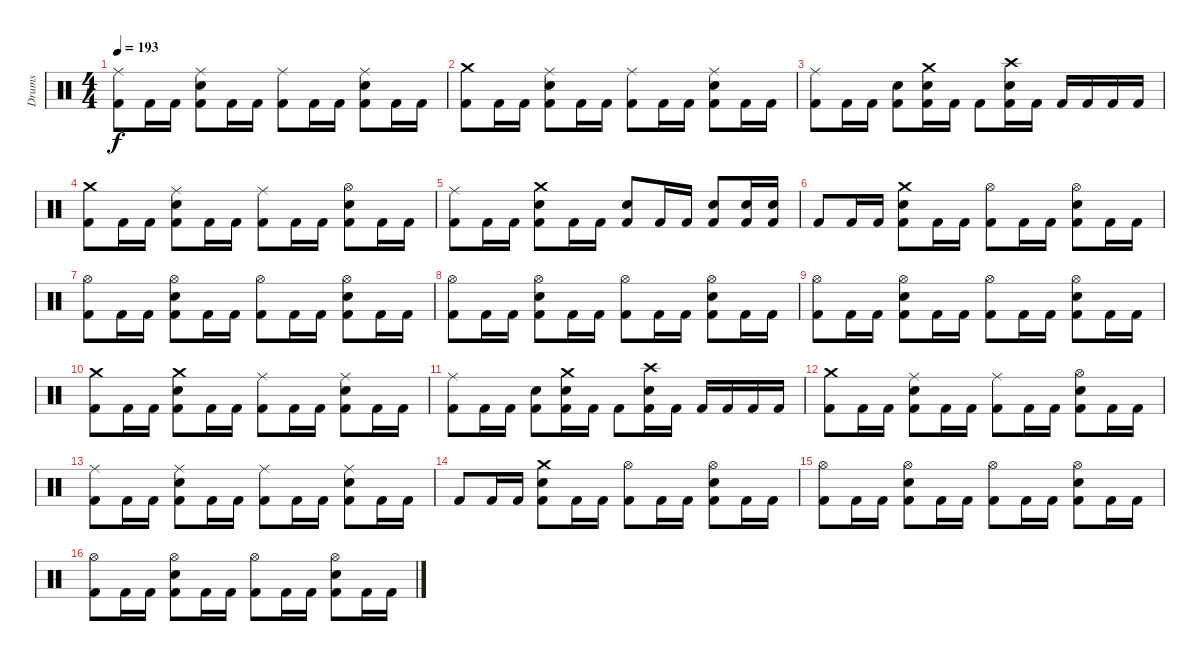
\track ("Drums" "Drums") {instrument percussion}
\staff {score}
\articulation defaults
\ts (4 4)
\tempo 193
\clef neutral
\ks c
("Ride (middle)" "Kick (hit) 2").8{dy f} "Kick (hit) 2".16 "Kick (hit) 2".16 ("Ride (middle)" "Snare (hit) 2" "Kick (hit) 2").8 "Kick (hit) 2".16 "Kick (hit) 2".16 ("Ride (middle)" "Kick (hit) 2").8 "Kick (hit) 2".16 "Kick (hit) 2".16 ("Ride (middle)" "Snare (hit) 2" "Kick (hit) 2").8 "Kick (hit) 2".16 "Kick (hit) 2".16 |
("Crash medium (hit)" "Kick (hit) 2").8 "Kick (hit) 2".16 "Kick (hit) 2".16 ("Ride (middle)" "Snare (hit) 2" "Kick (hit) 2").8 "Kick (hit) 2".16 "Kick (hit) 2".16 ("Ride (middle)" "Kick (hit) 2").8 "Kick (hit) 2".16 "Kick (hit) 2".16 ("Ride (middle)" "Snare (hit) 2" "Kick (hit) 2").8 "Kick (hit) 2".16 "Kick (hit) 2".16 |
("Ride (middle)" "Kick (hit) 2").8 "Kick (hit) 2".16 "Kick (hit) 2".16 ("Snare (hit) 2" "Kick (hit) 2").8 ("Crash medium (hit)" "Snare (hit) 2" "Kick (hit) 2").16 "Kick (hit) 2".16 "Kick (hit) 2".8 ("Crash high (hit)" "Snare (hit) 2" "Kick (hit) 2").16 "Kick (hit) 2".16 "Kick (hit) 2".16 "Kick (hit) 2".16 "Kick (hit) 2".16 "Kick (hit) 2".16 |
("Crash medium (hit)" "Kick (hit) 2").8 "Kick (hit) 2".16 "Kick (hit) 2".16 ("Ride (middle)" "Snare (hit) 2" "Kick (hit) 2").8 "Kick (hit) 2".16 "Kick (hit) 2".16 ("Ride (middle)" "Kick (hit) 2").8 "Kick (hit) 2".16 "Kick (hit) 2".16 ("Hi-Hat (open)" "Snare (hit) 2" "Kick (hit) 2").8 "Kick (hit) 2".16 "Kick (hit) 2".16 |
("Ride (middle)" "Kick (hit) 2").8 "Kick (hit) 2".16 "Kick (hit) 2".16 ("Crash medium (hit)" "Snare (hit) 2" "Kick (hit) 2").8 "Kick (hit) 2".16 "Kick (hit) 2".16 ("Snare (hit) 2" "Kick (hit) 2").8 "Kick (hit) 2".16 "Kick (hit) 2".16 ("Snare (hit) 2" "Kick (hit) 2").8 ("Snare (hit) 2" "Kick (hit) 2").16 ("Snare (hit) 2" "Kick (hit) 2").16 |
"Kick (hit) 2".8 "Kick (hit) 2".16 "Kick (hit) 2".16 ("Crash medium (hit)" "Snare (hit) 2" "Kick (hit) 2").8 "Kick (hit) 2".16 "Kick (hit) 2".16 ("Hi-Hat (open)" "Kick (hit) 2").8 "Kick (hit) 2".16 "Kick (hit) 2".16 ("Hi-Hat (open)" "Snare (hit) 2" "Kick (hit) 2").8 "Kick (hit) 2".16 "Kick (hit) 2".16 |
("Hi-Hat (open)" "Kick (hit) 2").8 "Kick (hit) 2".16 "Kick (hit) 2".16 ("Hi-Hat (open)" "Snare (hit) 2" "Kick (hit) 2").8 "Kick (hit) 2".16 "Kick (hit) 2".16 ("Hi-Hat (open)" "Kick (hit) 2").8 "Kick (hit) 2".16 "Kick (hit) 2".16 ("Hi-Hat (open)" "Snare (hit) 2" "Kick (hit) 2").8 "Kick (hit) 2".16 "Kick (hit) 2".16 |
("Hi-Hat (open)" "Kick (hit) 2").8 "Kick (hit) 2".16 "Kick (hit) 2".16 ("Hi-Hat (open)" "Snare (hit) 2" "Kick (hit) 2").8 "Kick (hit) 2".16 "Kick (hit) 2".16 ("Hi-Hat (open)" "Kick (hit) 2").8 "Kick (hit) 2".16 "Kick (hit) 2".16 ("Hi-Hat (open)" "Snare (hit) 2" "Kick (hit) 2").8 "Kick (hit) 2".16 "Kick (hit) 2".16 |
("Hi-Hat (open)" "Kick (hit) 2").8 "Kick (hit) 2".16 "Kick (hit) 2".16 ("Hi-Hat (open)" "Snare (hit) 2" "Kick (hit) 2").8 "Kick (hit) 2".16 "Kick (hit) 2".16 ("Hi-Hat (open)" "Kick (hit) 2").8 "Kick (hit) 2".16 "Kick (hit) 2".16 ("Hi-Hat (open)" "Snare (hit) 2" "Kick (hit) 2").8 "Kick (hit) 2".16 "Kick (hit) 2".16 |
("Crash medium (hit)" "Kick (hit) 2").8 "Kick (hit) 2".16 "Kick (hit) 2".16 ("Crash medium (hit)" "Snare (hit) 2" "Kick (hit) 2").8 "Kick (hit) 2".16 "Kick (hit) 2".16 ("Ride (middle)" "Kick (hit) 2").8 "Kick (hit) 2".16 "Kick (hit) 2".16 ("Ride (middle)" "Snare (hit) 2" "Kick (hit) 2").8 "Kick (hit) 2".16 "Kick (hit) 2".16 |
("Ride (middle)" "Kick (hit) 2").8 "Kick (hit) 2".16 "Kick (hit) 2".16 ("Snare (hit) 2" "Kick (hit) 2").8 ("Crash medium (hit)" "Snare (hit) 2" "Kick (hit) 2").16 "Kick (hit) 2".16 "Kick (hit) 2".8 ("Crash high (hit)" "Snare (hit) 2" "Kick (hit) 2").16 "Kick (hit) 2".16 "Kick (hit) 2".16 "Kick (hit) 2".16 "Kick (hit) 2".16 "Kick (hit) 2".16 |
("Crash medium (hit)" "Kick (hit) 2").8 "Kick (hit) 2".16 "Kick (hit) 2".16 ("Ride (middle)" "Snare (hit) 2" "Kick (hit) 2").8 "Kick (hit) 2".16 "Kick (hit) 2".16 ("Ride (middle)" "Kick (hit) 2").8 "Kick (hit) 2".16 "Kick (hit) 2".16 ("Hi-Hat (open)" "Snare (hit) 2" "Kick (hit) 2").8 "Kick (hit) 2".16 "Kick (hit) 2".16 |
("Ride (middle)" "Kick (hit) 2").8 "Kick (hit) 2".16 "Kick (hit) 2".16 ("Ride (middle)" "Snare (hit) 2" "Kick (hit) 2").8 "Kick (hit) 2".16 "Kick (hit) 2".16 ("Ride (middle)" "Kick (hit) 2").8 "Kick (hit) 2".16 "Kick (hit) 2".16 ("Ride (middle)" "Snare (hit) 2" "Kick (hit) 2").8 "Kick (hit) 2".16 "Kick (hit) 2".16 |
"Kick (hit) 2".8 "Kick (hit) 2".16 "Kick (hit) 2".16 ("Crash medium (hit)" "Snare (hit) 2" "Kick (hit) 2").8 "Kick (hit) 2".16 "Kick (hit) 2".16 ("Hi-Hat (open)" "Kick (hit) 2").8 "Kick (hit) 2".16 "Kick (hit) 2".16 ("Hi-Hat (open)" "Snare (hit) 2" "Kick (hit) 2").8 "Kick (hit) 2".16 "Kick (hit) 2".16 |
("Hi-Hat (open)" "Kick (hit) 2").8 "Kick (hit) 2".16 "Kick (hit) 2".16 ("Hi-Hat (open)" "Snare (hit) 2" "Kick (hit) 2").8 "Kick (hit) 2".16 "Kick (hit) 2".16 ("Hi-Hat (open)" "Kick (hit) 2").8 "Kick (hit) 2".16 "Kick (hit) 2".16 ("Hi-Hat (open)" "Snare (hit) 2" "Kick (hit) 2").8 "Kick (hit) 2".16 "Kick (hit) 2".16 |
("Hi-Hat (open)" "Kick (hit) 2").8 "Kick (hit) 2".16 "Kick (hit) 2".16 ("Hi-Hat (open)" "Snare (hit) 2" "Kick (hit) 2").8 "Kick (hit) 2".16 "Kick (hit) 2".16 ("Hi-Hat (open)" "Kick (hit) 2").8 "Kick (hit) 2".16 "Kick (hit) 2".16 ("Hi-Hat (open)" "Snare (hit) 2" "Kick (hit) 2").8 "Kick (hit) 2".16 "Kick (hit) 2".16
